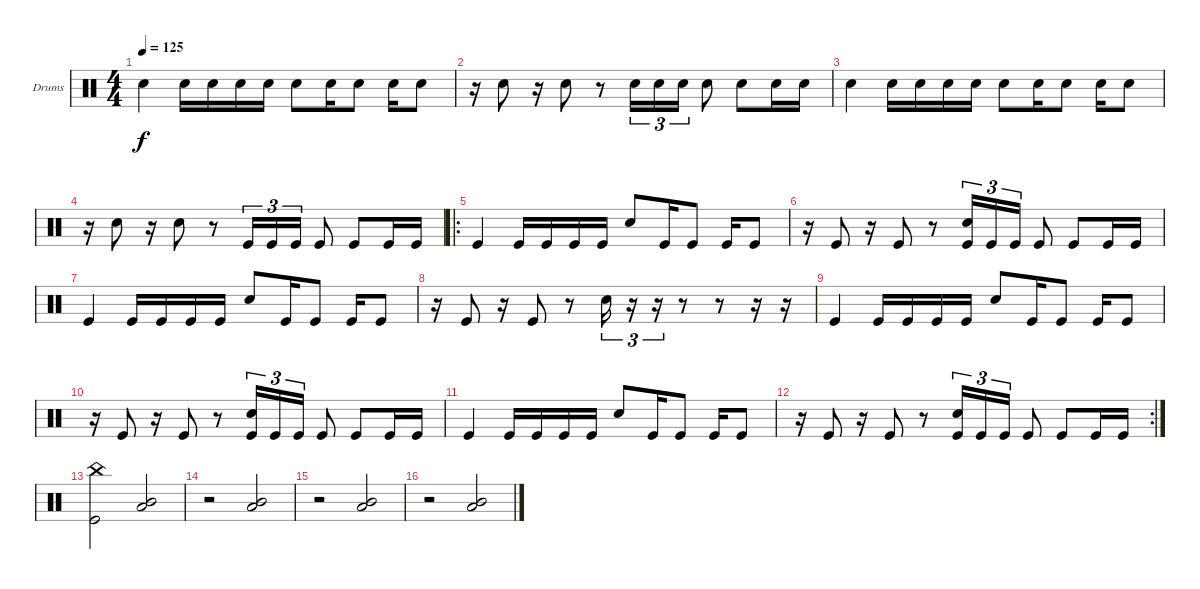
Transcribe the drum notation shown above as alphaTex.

\defaultSystemsLayout 4
\bracketExtendMode groupsimilarinstruments
\firstSystemTrackNameOrientation horizontal
\otherSystemsTrackNameOrientation horizontal
\track ("Drumkit" "Drums") {instrument percussion}
\staff {score}
\articulation defaults
\ts (4 4)
\tempo 125
\clef neutral
\ks c "Snare (hit) 2".4{dy f} "Snare (hit) 2".16 "Snare (hit) 2".16 "Snare (hit) 2".16 "Snare (hit) 2".16 "Snare (hit) 2".8 "Snare (hit) 2".16 "Snare (hit) 2".8 "Snare (hit) 2".16 "Snare (hit) 2".8
|
r.16 "Snare (hit) 2".8 r.16 "Snare (hit) 2".8 r.8 "Snare (hit) 2".16{tu (3 2)} "Snare (hit) 2".16{tu (3 2)} "Snare (hit) 2".16{tu (3 2)} "Snare (hit) 2".8 "Snare (hit) 2".8 "Snare (hit) 2".16 "Snare (hit) 2".16 |
"Snare (hit) 2".4 "Snare (hit) 2".16 "Snare (hit) 2".16 "Snare (hit) 2".16 "Snare (hit) 2".16 "Snare (hit) 2".8 "Snare (hit) 2".16 "Snare (hit) 2".8 "Snare (hit) 2".16 "Snare (hit) 2".8 |
r.16 "Snare (hit) 2".8 r.16 "Snare (hit) 2".8 r.8 "Kick (hit)".16{tu (3 2)} "Kick (hit)".16{tu (3 2)} "Kick (hit)".16{tu (3 2)} "Kick (hit)".8 "Kick (hit)".8 "Kick (hit)".16 "Kick (hit)".16 |
\ro "Kick (hit)".4 "Kick (hit)".16 "Kick (hit)".16 "Kick (hit)".16 "Kick (hit)".16 "Snare (hit) 2".8 "Kick (hit)".16 "Kick (hit)".8 "Kick (hit)".16 "Kick (hit)".8
|
r.16 "Kick (hit)".8 r.16 "Kick (hit)".8 r.8 ("Kick (hit)" "Snare (hit) 2").16{tu (3 2)} "Kick (hit)".16{tu (3 2)} "Kick (hit)".16{tu (3 2)} "Kick (hit)".8 "Kick (hit)".8 "Kick (hit)".16 "Kick (hit)".16 |
"Kick (hit)".4 "Kick (hit)".16 "Kick (hit)".16 "Kick (hit)".16 "Kick (hit)".16 "Snare (hit) 2".8 "Kick (hit)".16 "Kick (hit)".8 "Kick (hit)".16 "Kick (hit)".8 |
r.16 "Kick (hit)".8 r.16 "Kick (hit)".8 r.8 "Snare (hit) 2".16{tu (3 2)} r.16{tu (3 2)} r.16{tu (3 2)} r.8 r.8 r.16 r.16 |
"Kick (hit)".4 "Kick (hit)".16 "Kick (hit)".16 "Kick (hit)".16 "Kick (hit)".16 "Snare (hit) 2".8 "Kick (hit)".16 "Kick (hit)".8 "Kick (hit)".16 "Kick (hit)".8 |
r.16 "Kick (hit)".8 r.16 "Kick (hit)".8 r.8 ("Kick (hit)" "Snare (hit) 2").16{tu (3 2)} "Kick (hit)".16{tu (3 2)} "Kick (hit)".16{tu (3 2)} "Kick (hit)".8 "Kick (hit)".8 "Kick (hit)".16 "Kick (hit)".16 |
"Kick (hit)".4 "Kick (hit)".16 "Kick (hit)".16 "Kick (hit)".16 "Kick (hit)".16 "Snare (hit) 2".8 "Kick (hit)".16 "Kick (hit)".8 "Kick (hit)".16 "Kick (hit)".8 |
\rc 2
r.16 "Kick (hit)".8 r.16 "Kick (hit)".8 r.8 ("Kick (hit)" "Snare (hit) 2").16{tu (3 2)} "Kick (hit)".16{tu (3 2)} "Kick (hit)".16{tu (3 2)} "Kick (hit)".8 "Kick (hit)".8 "Kick (hit)".16 "Kick (hit)".16 |
("Kick (hit)" "China (hit)").2 ("Low Tom (hit)" "Mid Tom (hit)").2 |
r.2 ("Low Tom (hit)" "Mid Tom (hit)").2 |
r.2 ("Low Tom (hit)" "Mid Tom (hit)").2 |
r.2 ("Low Tom (hit)" "Mid Tom (hit)").2
